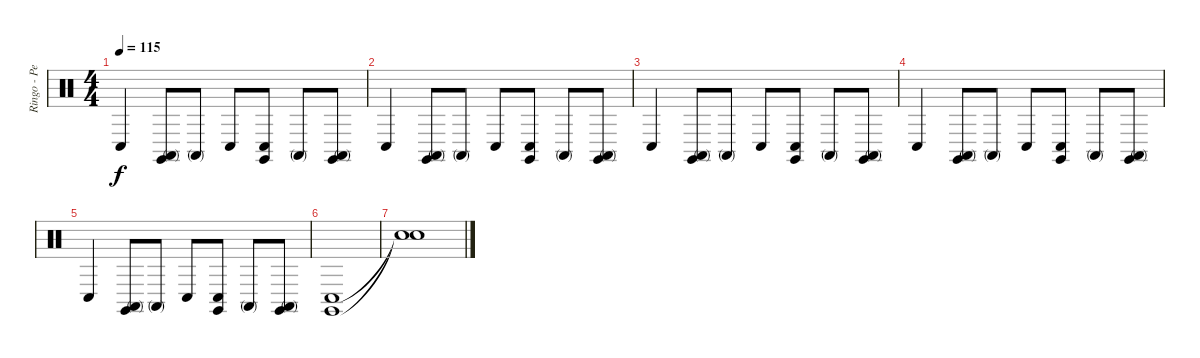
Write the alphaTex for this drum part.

\track ("Ringo - Percussion" "Ringo - Pe") {instrument percussion}
\staff {score}
\articulation defaults
\ts (4 4)
\tempo 115
\clef neutral
\ks c "Conga low (hit)".4{dy f}
("Conga high (mute)" "Claves (hit)").8 "Conga high (mute)".8 "Conga low (hit)".8 ("Conga low (hit)" "Claves (hit)").8 "Conga high (mute)".8 ("Conga high (mute)" "Claves (hit)").8 |
"Conga low (hit)".4 ("Conga high (mute)" "Claves (hit)").8 "Conga high (mute)".8 "Conga low (hit)".8 ("Conga low (hit)" "Claves (hit)").8 "Conga high (mute)".8 ("Conga high (mute)" "Claves (hit)").8 |
"Conga low (hit)".4 ("Conga high (mute)" "Claves (hit)").8 "Conga high (mute)".8 "Conga low (hit)".8 ("Conga low (hit)" "Claves (hit)").8 "Conga high (mute)".8 ("Conga high (mute)" "Claves (hit)").8 |
"Conga low (hit)".4 ("Conga high (mute)" "Claves (hit)").8 "Conga high (mute)".8 "Conga low (hit)".8 ("Conga low (hit)" "Claves (hit)").8 "Conga high (mute)".8 ("Conga high (mute)" "Claves (hit)").8 |
"Conga low (hit)".4 ("Conga high (mute)" "Claves (hit)").8 "Conga high (mute)".8 "Conga low (hit)".8 ("Conga low (hit)" "Claves (hit)").8 "Conga high (mute)".8 ("Conga high (mute)" "Claves (hit)").8 |
("Conga low (hit)" "Claves (hit)").1 |
("Snare (hit)"{t} "Snare (hit)"{t}).1
